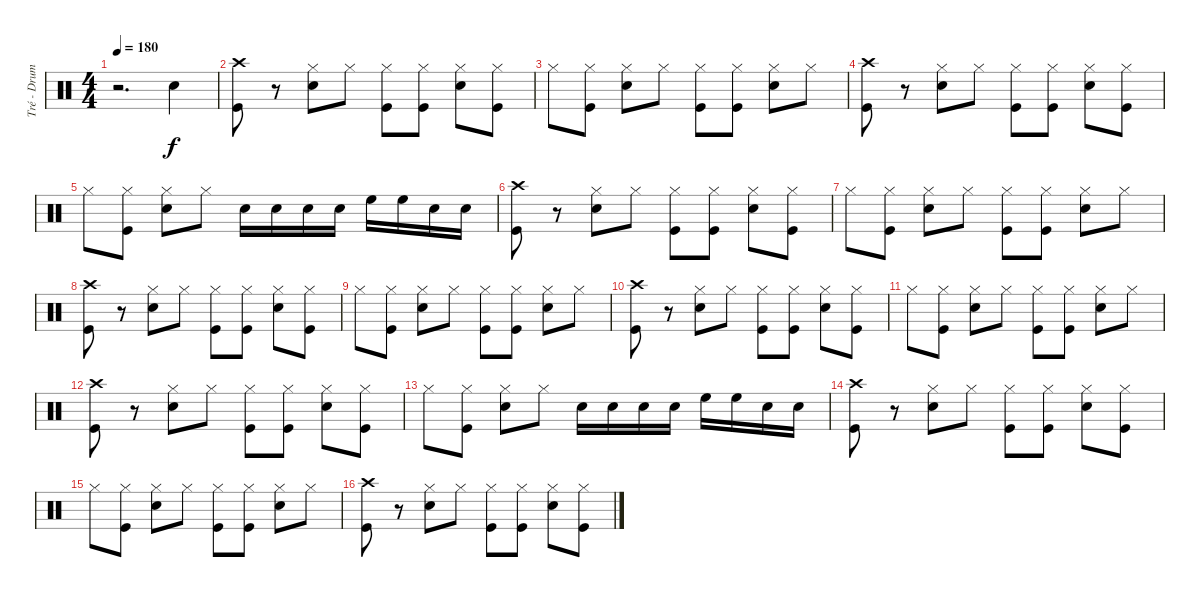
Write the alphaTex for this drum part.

\track ("Tré - Drums" "Tré - Drum") {instrument percussion}
\staff {score}
\articulation defaults
\ts (4 4)
\tempo 180
\clef neutral
\ks c
r.2{d dy f} "Electric Snare (hit)".4 |
("Crash high (hit)" "Kick (hit)").8 r.8 ("Hi-Hat (closed)" "Electric Snare (hit)").8 "Hi-Hat (closed)".8 ("Hi-Hat (closed)" "Kick (hit)").8 ("Hi-Hat (closed)" "Kick (hit)").8 ("Hi-Hat (closed)" "Electric Snare (hit)").8 ("Hi-Hat (closed)" "Kick (hit)").8 |
"Hi-Hat (closed)".8 ("Hi-Hat (closed)" "Kick (hit)").8 ("Hi-Hat (closed)" "Electric Snare (hit)").8 "Hi-Hat (closed)".8 ("Hi-Hat (closed)" "Kick (hit)").8 ("Hi-Hat (closed)" "Kick (hit)").8 ("Hi-Hat (closed)" "Electric Snare (hit)").8 "Hi-Hat (closed)".8 |
("Crash high (hit)" "Kick (hit)").8 r.8 ("Hi-Hat (closed)" "Electric Snare (hit)").8 "Hi-Hat (closed)".8 ("Hi-Hat (closed)" "Kick (hit)").8 ("Hi-Hat (closed)" "Kick (hit)").8 ("Hi-Hat (closed)" "Electric Snare (hit)").8 ("Hi-Hat (closed)" "Kick (hit)").8 |
"Hi-Hat (closed)".8 ("Hi-Hat (closed)" "Kick (hit)").8 ("Hi-Hat (closed)" "Electric Snare (hit)").8 "Hi-Hat (closed)".8 "Electric Snare (hit)".16 "Electric Snare (hit)".16 "Electric Snare (hit)".16 "Electric Snare (hit)".16 "High Floor Tom (hit)".16 "High Floor Tom (hit)".16 "Electric Snare (hit)".16 "Electric Snare (hit)".16 |
("Crash high (hit)" "Kick (hit)").8 r.8 ("Hi-Hat (closed)" "Electric Snare (hit)").8 "Hi-Hat (closed)".8 ("Hi-Hat (closed)" "Kick (hit)").8 ("Hi-Hat (closed)" "Kick (hit)").8 ("Hi-Hat (closed)" "Electric Snare (hit)").8 ("Hi-Hat (closed)" "Kick (hit)").8 |
"Hi-Hat (closed)".8 ("Hi-Hat (closed)" "Kick (hit)").8 ("Hi-Hat (closed)" "Electric Snare (hit)").8 "Hi-Hat (closed)".8 ("Hi-Hat (closed)" "Kick (hit)").8 ("Hi-Hat (closed)" "Kick (hit)").8 ("Hi-Hat (closed)" "Electric Snare (hit)").8 "Hi-Hat (closed)".8 |
("Crash high (hit)" "Kick (hit)").8 r.8 ("Hi-Hat (closed)" "Electric Snare (hit)").8 "Hi-Hat (closed)".8 ("Hi-Hat (closed)" "Kick (hit)").8 ("Hi-Hat (closed)" "Kick (hit)").8 ("Hi-Hat (closed)" "Electric Snare (hit)").8 ("Hi-Hat (closed)" "Kick (hit)").8 |
"Hi-Hat (closed)".8 ("Hi-Hat (closed)" "Kick (hit)").8 ("Hi-Hat (closed)" "Electric Snare (hit)").8 "Hi-Hat (closed)".8 ("Hi-Hat (closed)" "Kick (hit)").8 ("Hi-Hat (closed)" "Kick (hit)").8 ("Hi-Hat (closed)" "Electric Snare (hit)").8 "Hi-Hat (closed)".8 |
("Crash high (hit)" "Kick (hit)").8 r.8 ("Hi-Hat (closed)" "Electric Snare (hit)").8 "Hi-Hat (closed)".8 ("Hi-Hat (closed)" "Kick (hit)").8 ("Hi-Hat (closed)" "Kick (hit)").8 ("Hi-Hat (closed)" "Electric Snare (hit)").8 ("Hi-Hat (closed)" "Kick (hit)").8 |
"Hi-Hat (closed)".8 ("Hi-Hat (closed)" "Kick (hit)").8 ("Hi-Hat (closed)" "Electric Snare (hit)").8 "Hi-Hat (closed)".8 ("Hi-Hat (closed)" "Kick (hit)").8 ("Hi-Hat (closed)" "Kick (hit)").8 ("Hi-Hat (closed)" "Electric Snare (hit)").8 "Hi-Hat (closed)".8 |
("Crash high (hit)" "Kick (hit)").8 r.8 ("Hi-Hat (closed)" "Electric Snare (hit)").8 "Hi-Hat (closed)".8 ("Hi-Hat (closed)" "Kick (hit)").8 ("Hi-Hat (closed)" "Kick (hit)").8 ("Hi-Hat (closed)" "Electric Snare (hit)").8 ("Hi-Hat (closed)" "Kick (hit)").8 |
"Hi-Hat (closed)".8 ("Hi-Hat (closed)" "Kick (hit)").8 ("Hi-Hat (closed)" "Electric Snare (hit)").8 "Hi-Hat (closed)".8 "Electric Snare (hit)".16 "Electric Snare (hit)".16 "Electric Snare (hit)".16 "Electric Snare (hit)".16 "High Floor Tom (hit)".16 "High Floor Tom (hit)".16 "Electric Snare (hit)".16 "Electric Snare (hit)".16 |
("Crash high (hit)" "Kick (hit)").8 r.8 ("Hi-Hat (closed)" "Electric Snare (hit)").8 "Hi-Hat (closed)".8 ("Hi-Hat (closed)" "Kick (hit)").8 ("Hi-Hat (closed)" "Kick (hit)").8 ("Hi-Hat (closed)" "Electric Snare (hit)").8 ("Hi-Hat (closed)" "Kick (hit)").8 |
"Hi-Hat (closed)".8 ("Hi-Hat (closed)" "Kick (hit)").8 ("Hi-Hat (closed)" "Electric Snare (hit)").8 "Hi-Hat (closed)".8 ("Hi-Hat (closed)" "Kick (hit)").8 ("Hi-Hat (closed)" "Kick (hit)").8 ("Hi-Hat (closed)" "Electric Snare (hit)").8 "Hi-Hat (closed)".8 |
("Crash high (hit)" "Kick (hit)").8 r.8 ("Hi-Hat (closed)" "Electric Snare (hit)").8 "Hi-Hat (closed)".8 ("Hi-Hat (closed)" "Kick (hit)").8 ("Hi-Hat (closed)" "Kick (hit)").8 ("Hi-Hat (closed)" "Electric Snare (hit)").8 ("Hi-Hat (closed)" "Kick (hit)").8
